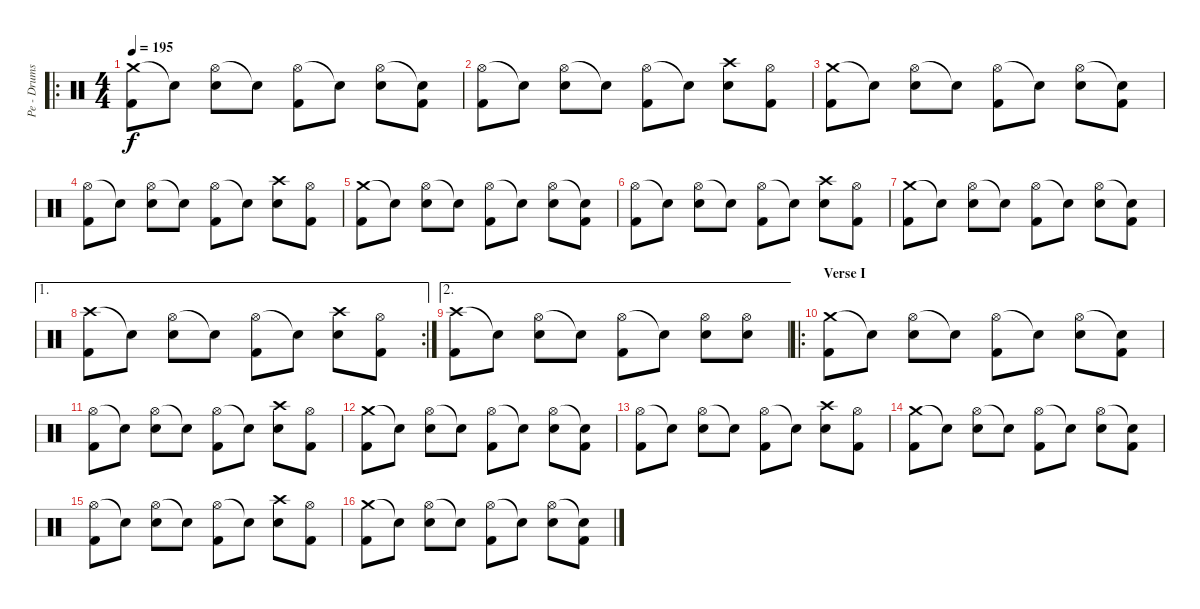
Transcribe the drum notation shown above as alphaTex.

\track ("Pe - Drums" "Pe - Drums") {instrument percussion}
\staff {score}
\articulation defaults
\ro
\ts (4 4)
\tempo 195
\clef neutral
\ks c
("Crash medium (hit)" "Kick (hit) 2").8{dy f volume 13} "Snare (hit)"{t}.8 ("Hi-Hat (open)" "Electric Snare (hit)").8 "Snare (hit)"{t}.8 ("Hi-Hat (open)" "Kick (hit) 2").8 "Snare (hit)"{t}.8 ("Hi-Hat (open)" "Electric Snare (hit)").8 ("Snare (hit)"{t} "Kick (hit) 2").8 |
("Hi-Hat (open)" "Kick (hit) 2").8 "Snare (hit)"{t}.8 ("Hi-Hat (open)" "Electric Snare (hit)").8 "Snare (hit)"{t}.8 ("Hi-Hat (open)" "Kick (hit) 2").8 "Snare (hit)"{t}.8 ("Crash high (hit)" "Electric Snare (hit)").8 ("Hi-Hat (open)" "Kick (hit) 2").8 |
("Crash medium (hit)" "Kick (hit) 2").8 "Snare (hit)"{t}.8 ("Hi-Hat (open)" "Electric Snare (hit)").8 "Snare (hit)"{t}.8 ("Hi-Hat (open)" "Kick (hit) 2").8 "Snare (hit)"{t}.8 ("Hi-Hat (open)" "Electric Snare (hit)").8 ("Snare (hit)"{t} "Kick (hit) 2").8 |
("Hi-Hat (open)" "Kick (hit) 2").8 "Snare (hit)"{t}.8 ("Hi-Hat (open)" "Electric Snare (hit)").8 "Snare (hit)"{t}.8 ("Hi-Hat (open)" "Kick (hit) 2").8 "Snare (hit)"{t}.8 ("Crash high (hit)" "Electric Snare (hit)").8 ("Hi-Hat (open)" "Kick (hit) 2").8 |
("Crash medium (hit)" "Kick (hit) 2").8 "Snare (hit)"{t}.8 ("Hi-Hat (open)" "Electric Snare (hit)").8 "Snare (hit)"{t}.8 ("Hi-Hat (open)" "Kick (hit) 2").8 "Snare (hit)"{t}.8 ("Hi-Hat (open)" "Electric Snare (hit)").8 ("Snare (hit)"{t} "Kick (hit) 2").8 |
("Hi-Hat (open)" "Kick (hit) 2").8 "Snare (hit)"{t}.8 ("Hi-Hat (open)" "Electric Snare (hit)").8 "Snare (hit)"{t}.8 ("Hi-Hat (open)" "Kick (hit) 2").8 "Snare (hit)"{t}.8 ("Crash high (hit)" "Electric Snare (hit)").8 ("Hi-Hat (open)" "Kick (hit) 2").8 |
("Crash medium (hit)" "Kick (hit) 2").8 "Snare (hit)"{t}.8 ("Hi-Hat (open)" "Electric Snare (hit)").8 "Snare (hit)"{t}.8 ("Hi-Hat (open)" "Kick (hit) 2").8 "Snare (hit)"{t}.8 ("Hi-Hat (open)" "Electric Snare (hit)").8 ("Snare (hit)"{t} "Kick (hit) 2").8 |
\ae 1
\rc 2
("Crash high (hit)" "Kick (hit) 2").8 "Snare (hit)"{t}.8 ("Hi-Hat (open)" "Electric Snare (hit)").8 "Snare (hit)"{t}.8 ("Hi-Hat (open)" "Kick (hit) 2").8 "Snare (hit)"{t}.8 ("Crash high (hit)" "Electric Snare (hit)").8 ("Hi-Hat (open)" "Kick (hit) 2").8 |
\ae 2
("Crash high (hit)" "Kick (hit) 2").8 "Snare (hit)"{t}.8 ("Hi-Hat (open)" "Electric Snare (hit)").8 "Snare (hit)"{t}.8 ("Hi-Hat (open)" "Kick (hit) 2").8 "Snare (hit)"{t}.8 ("Hi-Hat (open)" "Electric Snare (hit)").8 ("Hi-Hat (open)" "Electric Snare (hit)").8 |
\ro
\section ("" "Verse I")
("Crash medium (hit)" "Kick (hit) 2").8 "Snare (hit)"{t}.8 ("Hi-Hat (open)" "Electric Snare (hit)").8 "Snare (hit)"{t}.8 ("Hi-Hat (open)" "Kick (hit) 2").8 "Snare (hit)"{t}.8 ("Hi-Hat (open)" "Electric Snare (hit)").8 ("Snare (hit)"{t} "Kick (hit) 2").8 |
("Hi-Hat (open)" "Kick (hit) 2").8 "Snare (hit)"{t}.8 ("Hi-Hat (open)" "Electric Snare (hit)").8 "Snare (hit)"{t}.8 ("Hi-Hat (open)" "Kick (hit) 2").8 "Snare (hit)"{t}.8 ("Crash high (hit)" "Electric Snare (hit)").8 ("Hi-Hat (open)" "Kick (hit) 2").8 |
("Crash medium (hit)" "Kick (hit) 2").8 "Snare (hit)"{t}.8 ("Hi-Hat (open)" "Electric Snare (hit)").8 "Snare (hit)"{t}.8 ("Hi-Hat (open)" "Kick (hit) 2").8 "Snare (hit)"{t}.8 ("Hi-Hat (open)" "Electric Snare (hit)").8 ("Snare (hit)"{t} "Kick (hit) 2").8 |
("Hi-Hat (open)" "Kick (hit) 2").8 "Snare (hit)"{t}.8 ("Hi-Hat (open)" "Electric Snare (hit)").8 "Snare (hit)"{t}.8 ("Hi-Hat (open)" "Kick (hit) 2").8 "Snare (hit)"{t}.8 ("Crash high (hit)" "Electric Snare (hit)").8 ("Hi-Hat (open)" "Kick (hit) 2").8 |
("Crash medium (hit)" "Kick (hit) 2").8 "Snare (hit)"{t}.8 ("Hi-Hat (open)" "Electric Snare (hit)").8 "Snare (hit)"{t}.8 ("Hi-Hat (open)" "Kick (hit) 2").8 "Snare (hit)"{t}.8 ("Hi-Hat (open)" "Electric Snare (hit)").8 ("Snare (hit)"{t} "Kick (hit) 2").8 |
("Hi-Hat (open)" "Kick (hit) 2").8 "Snare (hit)"{t}.8 ("Hi-Hat (open)" "Electric Snare (hit)").8 "Snare (hit)"{t}.8 ("Hi-Hat (open)" "Kick (hit) 2").8 "Snare (hit)"{t}.8 ("Crash high (hit)" "Electric Snare (hit)").8 ("Hi-Hat (open)" "Kick (hit) 2").8 |
("Crash medium (hit)" "Kick (hit) 2").8 "Snare (hit)"{t}.8 ("Hi-Hat (open)" "Electric Snare (hit)").8 "Snare (hit)"{t}.8 ("Hi-Hat (open)" "Kick (hit) 2").8 "Snare (hit)"{t}.8 ("Hi-Hat (open)" "Electric Snare (hit)").8 ("Snare (hit)"{t} "Kick (hit) 2").8
